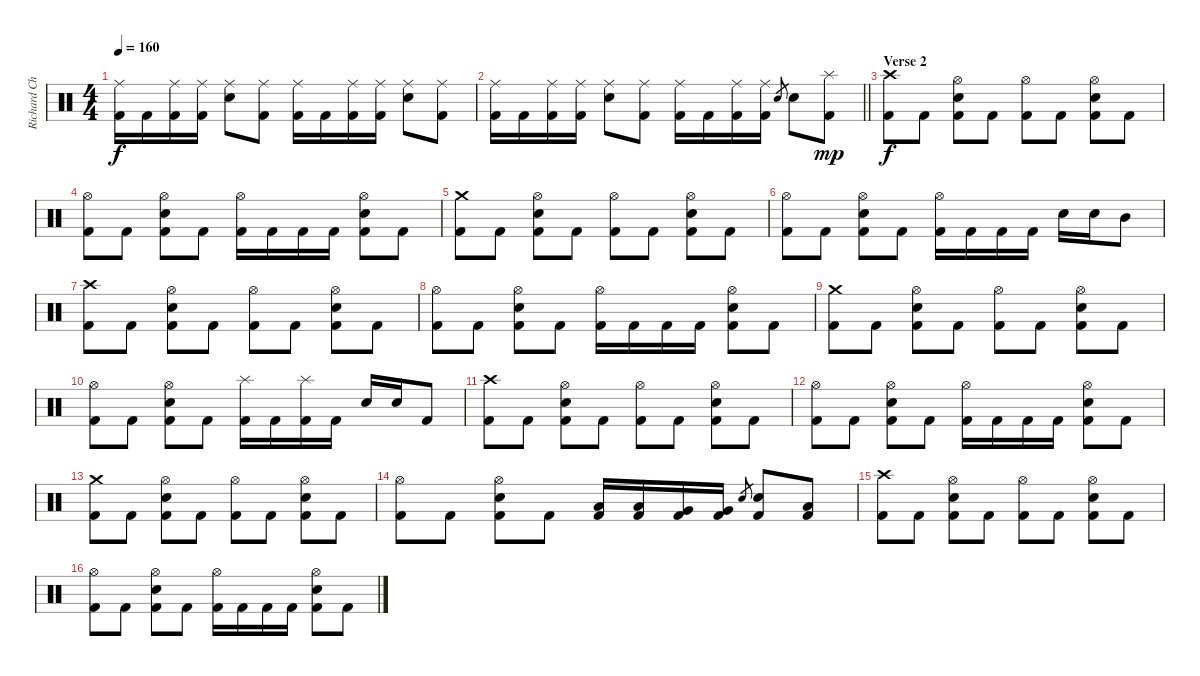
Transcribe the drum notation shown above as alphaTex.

\track ("Richard Christy" "Richard Ch") {instrument percussion}
\staff {score}
\articulation defaults
\ts (4 4)
\tempo 160
\clef neutral
\ks c
("Ride (middle)" "Kick (hit) 2").16{dy f} "Kick (hit) 2".16 ("Ride (middle)" "Kick (hit) 2").16 ("Ride (middle)" "Kick (hit) 2").16 ("Ride (middle)" "Snare (hit) 2").8 ("Ride (middle)" "Kick (hit) 2").8 ("Ride (middle)" "Kick (hit) 2").16 "Kick (hit) 2".16 ("Ride (middle)" "Kick (hit) 2").16 ("Ride (middle)" "Kick (hit) 2").16 ("Ride (middle)" "Snare (hit) 2").8 ("Ride (middle)" "Kick (hit) 2").8 |
\barLineRight lightlight
("Ride (middle)" "Kick (hit) 2").16 "Kick (hit) 2".16 ("Ride (middle)" "Kick (hit) 2").16 ("Ride (middle)" "Kick (hit) 2").16 ("Ride (middle)" "Snare (hit) 2").8 ("Ride (middle)" "Kick (hit) 2").8 ("Ride (middle)" "Kick (hit) 2").16 "Kick (hit) 2".16 ("Ride (middle)" "Kick (hit) 2").16 ("Ride (middle)" "Kick (hit) 2").16 "Snare (hit) 2".8{gr} "Snare (hit) 2".8 ("Splash (hit)" "Kick (hit) 2").8{dy mp} |
\section ("" "Verse 2")
("Crash high (hit)" "Kick (hit) 2").8{dy f} "Kick (hit) 2".8 ("Hi-Hat (open)" "Snare (hit) 2" "Kick (hit) 2").8 "Kick (hit) 2".8 ("Hi-Hat (open)" "Kick (hit) 2").8 "Kick (hit) 2".8 ("Hi-Hat (open)" "Snare (hit) 2" "Kick (hit) 2").8 "Kick (hit) 2".8 |
("Hi-Hat (open)" "Kick (hit) 2").8 "Kick (hit) 2".8 ("Hi-Hat (open)" "Snare (hit) 2" "Kick (hit) 2").8 "Kick (hit) 2".8 ("Hi-Hat (open)" "Kick (hit) 2").16 "Kick (hit) 2".16 "Kick (hit) 2".16 "Kick (hit) 2".16 ("Hi-Hat (open)" "Snare (hit) 2" "Kick (hit) 2").8 "Kick (hit) 2".8 |
("Crash medium (hit)" "Kick (hit) 2").8 "Kick (hit) 2".8 ("Hi-Hat (open)" "Snare (hit) 2" "Kick (hit) 2").8 "Kick (hit) 2".8 ("Hi-Hat (open)" "Kick (hit) 2").8 "Kick (hit) 2".8 ("Hi-Hat (open)" "Snare (hit) 2" "Kick (hit) 2").8 "Kick (hit) 2".8 |
("Hi-Hat (open)" "Kick (hit) 2").8 "Kick (hit) 2".8 ("Hi-Hat (open)" "Snare (hit) 2" "Kick (hit) 2").8 "Kick (hit) 2".8 ("Hi-Hat (open)" "Kick (hit) 2").16 "Kick (hit) 2".16 "Kick (hit) 2".16 "Kick (hit) 2".16 "Snare (hit) 2".16 "Snare (hit) 2".16 "Mid Tom (hit)".8 |
("Crash high (hit)" "Kick (hit) 2").8 "Kick (hit) 2".8 ("Hi-Hat (open)" "Snare (hit) 2" "Kick (hit) 2").8 "Kick (hit) 2".8 ("Hi-Hat (open)" "Kick (hit) 2").8 "Kick (hit) 2".8 ("Hi-Hat (open)" "Snare (hit) 2" "Kick (hit) 2").8 "Kick (hit) 2".8 |
("Hi-Hat (open)" "Kick (hit) 2").8 "Kick (hit) 2".8 ("Hi-Hat (open)" "Snare (hit) 2" "Kick (hit) 2").8 "Kick (hit) 2".8 ("Hi-Hat (open)" "Kick (hit) 2").16 "Kick (hit) 2".16 "Kick (hit) 2".16 "Kick (hit) 2".16 ("Hi-Hat (open)" "Snare (hit) 2" "Kick (hit) 2").8 "Kick (hit) 2".8 |
("Crash medium (hit)" "Kick (hit) 2").8 "Kick (hit) 2".8 ("Hi-Hat (open)" "Snare (hit) 2" "Kick (hit) 2").8 "Kick (hit) 2".8 ("Hi-Hat (open)" "Kick (hit) 2").8 "Kick (hit) 2".8 ("Hi-Hat (open)" "Snare (hit) 2" "Kick (hit) 2").8 "Kick (hit) 2".8 |
("Hi-Hat (open)" "Kick (hit) 2").8 "Kick (hit) 2".8 ("Hi-Hat (open)" "Snare (hit) 2" "Kick (hit) 2").8 "Kick (hit) 2".8 ("Splash (hit)" "Kick (hit) 2").16 "Kick (hit) 2".16 ("Splash (hit)" "Kick (hit) 2").16 "Kick (hit) 2".16 "Snare (hit) 2".16 "Snare (hit) 2".16 "Kick (hit) 2".8 |
("Crash high (hit)" "Kick (hit) 2").8 "Kick (hit) 2".8 ("Hi-Hat (open)" "Snare (hit) 2" "Kick (hit) 2").8 "Kick (hit) 2".8 ("Hi-Hat (open)" "Kick (hit) 2").8 "Kick (hit) 2".8 ("Hi-Hat (open)" "Snare (hit) 2" "Kick (hit) 2").8 "Kick (hit) 2".8 |
("Hi-Hat (open)" "Kick (hit) 2").8 "Kick (hit) 2".8 ("Hi-Hat (open)" "Snare (hit) 2" "Kick (hit) 2").8 "Kick (hit) 2".8 ("Hi-Hat (open)" "Kick (hit) 2").16 "Kick (hit) 2".16 "Kick (hit) 2".16 "Kick (hit) 2".16 ("Hi-Hat (open)" "Snare (hit) 2" "Kick (hit) 2").8 "Kick (hit) 2".8 |
("Crash medium (hit)" "Kick (hit) 2").8 "Kick (hit) 2".8 ("Hi-Hat (open)" "Snare (hit) 2" "Kick (hit) 2").8 "Kick (hit) 2".8 ("Hi-Hat (open)" "Kick (hit) 2").8 "Kick (hit) 2".8 ("Hi-Hat (open)" "Snare (hit) 2" "Kick (hit) 2").8 "Kick (hit) 2".8 |
("Hi-Hat (open)" "Kick (hit) 2").8 "Kick (hit) 2".8 ("Hi-Hat (open)" "Snare (hit) 2" "Kick (hit) 2").8 "Kick (hit) 2".8 ("Low Tom (hit)" "Kick (hit) 2").16 ("Low Tom (hit)" "Kick (hit) 2").16 ("Very Low Tom (hit)" "Kick (hit) 2").16 ("Very Low Tom (hit)" "Kick (hit) 2").16 "Snare (hit) 2".8{gr} ("Snare (hit) 2" "Kick (hit) 2").8 ("Low Floor Tom (hit)" "Kick (hit) 2").8 |
("Crash high (hit)" "Kick (hit) 2").8 "Kick (hit) 2".8 ("Hi-Hat (open)" "Snare (hit) 2" "Kick (hit) 2").8 "Kick (hit) 2".8 ("Hi-Hat (open)" "Kick (hit) 2").8 "Kick (hit) 2".8 ("Hi-Hat (open)" "Snare (hit) 2" "Kick (hit) 2").8 "Kick (hit) 2".8 |
("Hi-Hat (open)" "Kick (hit) 2").8 "Kick (hit) 2".8 ("Hi-Hat (open)" "Snare (hit) 2" "Kick (hit) 2").8 "Kick (hit) 2".8 ("Hi-Hat (open)" "Kick (hit) 2").16 "Kick (hit) 2".16 "Kick (hit) 2".16 "Kick (hit) 2".16 ("Hi-Hat (open)" "Snare (hit) 2" "Kick (hit) 2").8 "Kick (hit) 2".8
